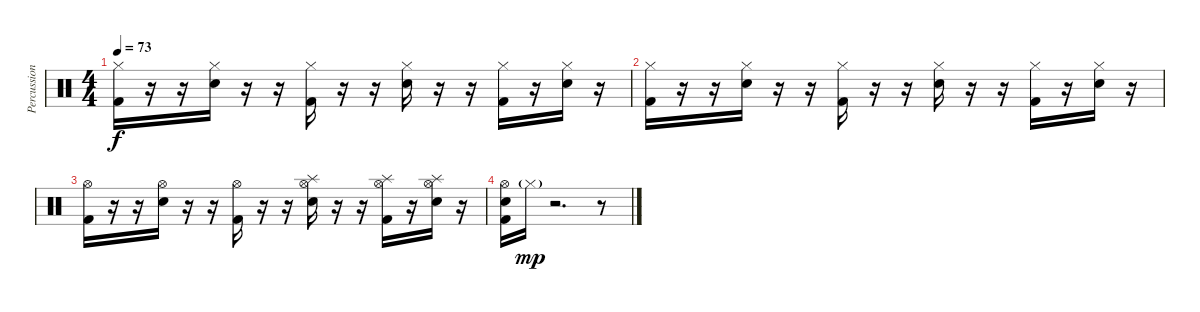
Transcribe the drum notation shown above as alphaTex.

\track ("Percussion" "Percussion") {instrument percussion}
\staff {score}
\articulation defaults
\ts (4 4)
\tempo 73
\clef neutral
\ks c
("Hi-Hat (closed)" "Kick (hit) 2").16{dy f} r.16 r.16 ("Hi-Hat (closed)" "Electric Snare (hit)").16 r.16 r.16 ("Hi-Hat (closed)" "Kick (hit) 2").16 r.16 r.16 ("Hi-Hat (closed)" "Electric Snare (hit)").16 r.16 r.16 ("Hi-Hat (closed)" "Kick (hit) 2").16 r.16 ("Hi-Hat (closed)" "Electric Snare (hit)").16 r.16 |
("Hi-Hat (closed)" "Kick (hit) 2").16 r.16 r.16 ("Hi-Hat (closed)" "Electric Snare (hit)").16 r.16 r.16 ("Hi-Hat (closed)" "Kick (hit) 2").16 r.16 r.16 ("Hi-Hat (closed)" "Electric Snare (hit)").16 r.16 r.16 ("Hi-Hat (closed)" "Kick (hit) 2").16 r.16 ("Hi-Hat (closed)" "Electric Snare (hit)").16 r.16 |
("Hi-Hat (open)" "Kick (hit) 2").16 r.16 r.16 ("Hi-Hat (open)" "Electric Snare (hit)").16 r.16 r.16 ("Hi-Hat (open)" "Kick (hit) 2").16 r.16 r.16 ("Hi-Hat (open)" "Splash (hit)" "Electric Snare (hit)").16 r.16 r.16 ("Hi-Hat (open)" "Splash (hit)" "Kick (hit) 2").16 r.16 ("Hi-Hat (open)" "Splash (hit)" "Electric Snare (hit)").16 r.16 |
("Hi-Hat (open)" "Electric Snare (hit)" "Kick (hit) 2").16 "Hi-Hat (closed)"{g}.16{dy mp} r.2{d} r.8
